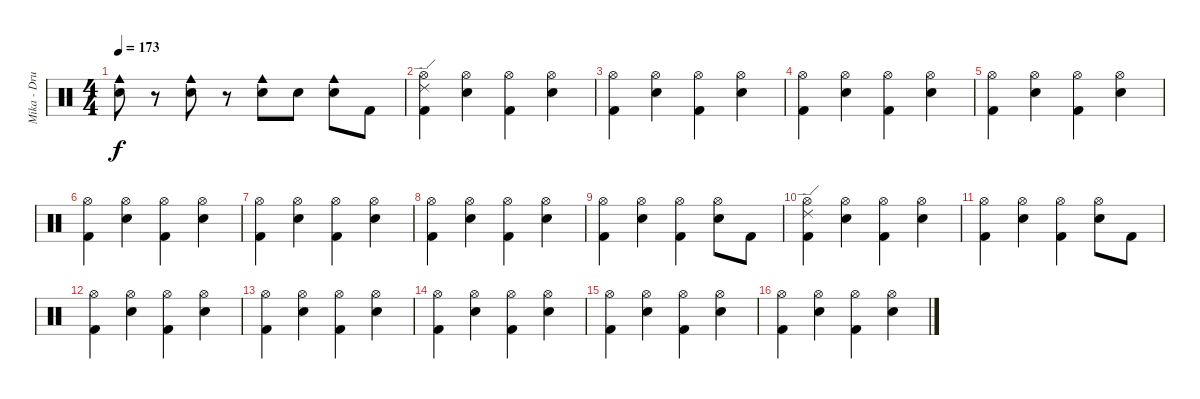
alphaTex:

\track ("Mika - Drums" "Mika - Dru") {instrument percussion}
\staff {score}
\articulation defaults
\ts (4 4)
\tempo 173
\clef neutral
\ks c
("Cowbell medium (hit)" "Electric Snare (hit)").8{dy f} r.8 ("Cowbell medium (hit)" "Electric Snare (hit)").8 r.8 ("Cowbell medium (hit)" "Electric Snare (hit)").8 "Electric Snare (hit)".8 ("Cowbell medium (hit)" "Electric Snare (hit)").8 "Kick (hit) 2".8 |
("Ride (edge) 2" "Hi-Hat (open)" "Kick (hit) 2").4 ("Hi-Hat (open)" "Electric Snare (hit)").4 ("Hi-Hat (open)" "Kick (hit) 2").4 ("Hi-Hat (open)" "Electric Snare (hit)").4 |
("Hi-Hat (open)" "Kick (hit) 2").4 ("Hi-Hat (open)" "Electric Snare (hit)").4 ("Hi-Hat (open)" "Kick (hit) 2").4 ("Hi-Hat (open)" "Electric Snare (hit)").4 |
("Hi-Hat (open)" "Kick (hit) 2").4 ("Hi-Hat (open)" "Electric Snare (hit)").4 ("Hi-Hat (open)" "Kick (hit) 2").4 ("Hi-Hat (open)" "Electric Snare (hit)").4 |
("Hi-Hat (open)" "Kick (hit) 2").4 ("Hi-Hat (open)" "Electric Snare (hit)").4 ("Hi-Hat (open)" "Kick (hit) 2").4 ("Hi-Hat (open)" "Electric Snare (hit)").4 |
("Hi-Hat (open)" "Kick (hit) 2").4 ("Hi-Hat (open)" "Electric Snare (hit)").4 ("Hi-Hat (open)" "Kick (hit) 2").4 ("Hi-Hat (open)" "Electric Snare (hit)").4 |
("Hi-Hat (open)" "Kick (hit) 2").4 ("Hi-Hat (open)" "Electric Snare (hit)").4 ("Hi-Hat (open)" "Kick (hit) 2").4 ("Hi-Hat (open)" "Electric Snare (hit)").4 |
("Hi-Hat (open)" "Kick (hit) 2").4 ("Hi-Hat (open)" "Electric Snare (hit)").4 ("Hi-Hat (open)" "Kick (hit) 2").4 ("Hi-Hat (open)" "Electric Snare (hit)").4 |
("Hi-Hat (open)" "Kick (hit) 2").4 ("Hi-Hat (open)" "Electric Snare (hit)").4 ("Hi-Hat (open)" "Kick (hit) 2").4 ("Hi-Hat (open)" "Electric Snare (hit)").8 "Kick (hit) 2".8 |
("Ride (edge) 2" "Hi-Hat (open)" "Kick (hit) 2").4 ("Hi-Hat (open)" "Electric Snare (hit)").4 ("Hi-Hat (open)" "Kick (hit) 2").4 ("Hi-Hat (open)" "Electric Snare (hit)").4 |
("Hi-Hat (open)" "Kick (hit) 2").4 ("Hi-Hat (open)" "Electric Snare (hit)").4 ("Hi-Hat (open)" "Kick (hit) 2").4 ("Hi-Hat (open)" "Electric Snare (hit)").8 "Kick (hit) 2".8 |
("Hi-Hat (open)" "Kick (hit) 2").4 ("Hi-Hat (open)" "Electric Snare (hit)").4 ("Hi-Hat (open)" "Kick (hit) 2").4 ("Hi-Hat (open)" "Electric Snare (hit)").4 |
("Hi-Hat (open)" "Kick (hit) 2").4 ("Hi-Hat (open)" "Electric Snare (hit)").4 ("Hi-Hat (open)" "Kick (hit) 2").4 ("Hi-Hat (open)" "Electric Snare (hit)").4 |
("Hi-Hat (open)" "Kick (hit) 2").4 ("Hi-Hat (open)" "Electric Snare (hit)").4 ("Hi-Hat (open)" "Kick (hit) 2").4 ("Hi-Hat (open)" "Electric Snare (hit)").4 |
("Hi-Hat (open)" "Kick (hit) 2").4 ("Hi-Hat (open)" "Electric Snare (hit)").4 ("Hi-Hat (open)" "Kick (hit) 2").4 ("Hi-Hat (open)" "Electric Snare (hit)").4 |
("Hi-Hat (open)" "Kick (hit) 2").4 ("Hi-Hat (open)" "Electric Snare (hit)").4 ("Hi-Hat (open)" "Kick (hit) 2").4 ("Hi-Hat (open)" "Electric Snare (hit)").4
